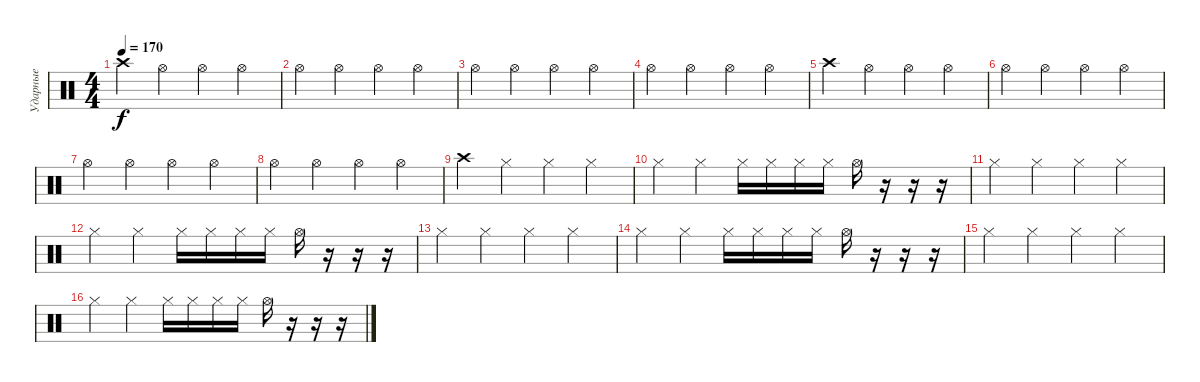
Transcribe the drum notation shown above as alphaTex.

\track ("Ударные" "Ударные") {instrument percussion}
\staff {score}
\articulation defaults
\ts (4 4)
\tempo 170
\clef neutral
\ks c "Crash high (hit)".4{dy f} "Hi-Hat (open)".4 "Hi-Hat (open)".4 "Hi-Hat (open)".4
|
"Hi-Hat (open)".4 "Hi-Hat (open)".4 "Hi-Hat (open)".4 "Hi-Hat (open)".4 |
"Hi-Hat (open)".4 "Hi-Hat (open)".4 "Hi-Hat (open)".4 "Hi-Hat (open)".4 |
"Hi-Hat (open)".4 "Hi-Hat (open)".4 "Hi-Hat (open)".4 "Hi-Hat (open)".4 |
"Crash high (hit)".4 "Hi-Hat (open)".4 "Hi-Hat (open)".4 "Hi-Hat (open)".4 |
"Hi-Hat (open)".4 "Hi-Hat (open)".4 "Hi-Hat (open)".4 "Hi-Hat (open)".4 |
"Hi-Hat (open)".4 "Hi-Hat (open)".4 "Hi-Hat (open)".4 "Hi-Hat (open)".4 |
"Hi-Hat (open)".4 "Hi-Hat (open)".4 "Hi-Hat (open)".4 "Hi-Hat (open)".4 |
"Crash high (hit)".4 "Hi-Hat (closed)".4 "Hi-Hat (closed)".4 "Hi-Hat (closed)".4 |
"Hi-Hat (closed)".4 "Hi-Hat (closed)".4 "Hi-Hat (closed)".16 "Hi-Hat (closed)".16 "Hi-Hat (closed)".16 "Hi-Hat (closed)".16 "Hi-Hat (open)".16 r.16 r.16 r.16 |
"Hi-Hat (closed)".4 "Hi-Hat (closed)".4 "Hi-Hat (closed)".4 "Hi-Hat (closed)".4 |
"Hi-Hat (closed)".4 "Hi-Hat (closed)".4 "Hi-Hat (closed)".16 "Hi-Hat (closed)".16 "Hi-Hat (closed)".16 "Hi-Hat (closed)".16 "Hi-Hat (open)".16 r.16 r.16 r.16 |
"Hi-Hat (closed)".4 "Hi-Hat (closed)".4 "Hi-Hat (closed)".4 "Hi-Hat (closed)".4 |
"Hi-Hat (closed)".4 "Hi-Hat (closed)".4 "Hi-Hat (closed)".16 "Hi-Hat (closed)".16 "Hi-Hat (closed)".16 "Hi-Hat (closed)".16 "Hi-Hat (open)".16 r.16 r.16 r.16 |
"Hi-Hat (closed)".4 "Hi-Hat (closed)".4 "Hi-Hat (closed)".4 "Hi-Hat (closed)".4 |
"Hi-Hat (closed)".4 "Hi-Hat (closed)".4 "Hi-Hat (closed)".16 "Hi-Hat (closed)".16 "Hi-Hat (closed)".16 "Hi-Hat (closed)".16 "Hi-Hat (open)".16 r.16 r.16 r.16
